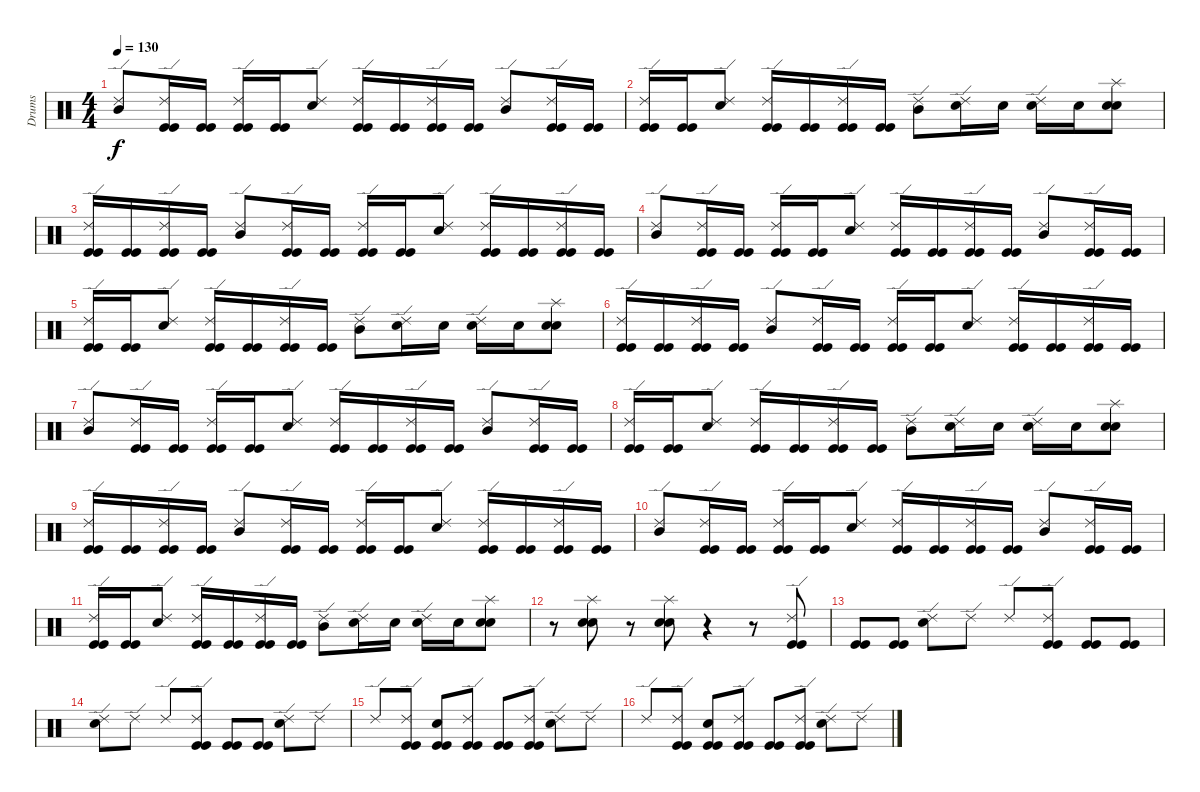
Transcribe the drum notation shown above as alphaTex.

\track ("Drums" "Drums") {instrument percussion}
\staff {score}
\articulation defaults
\ts (4 4)
\tempo 130
\clef neutral
\ks c
("Ride (edge) 2" "Mid Tom (hit)").8{dy f} ("Ride (edge) 2" "Kick (hit)" "Kick (hit)").16 ("Kick (hit)" "Kick (hit)").16 ("Ride (edge) 2" "Kick (hit)" "Kick (hit)").16 ("Kick (hit)" "Kick (hit)").16 ("Ride (edge) 2" "Snare (hit) 2").8 ("Ride (edge) 2" "Kick (hit)" "Kick (hit)").16 ("Kick (hit)" "Kick (hit)").16 ("Ride (edge) 2" "Kick (hit)" "Kick (hit)").16 ("Kick (hit)" "Kick (hit)").16 ("Ride (edge) 2" "Mid Tom (hit)").8 ("Ride (edge) 2" "Kick (hit)" "Kick (hit)").16 ("Kick (hit)" "Kick (hit)").16 |
("Ride (edge) 2" "Kick (hit)" "Kick (hit)").16 ("Kick (hit)" "Kick (hit)").16 ("Ride (edge) 2" "Snare (hit) 2").8 ("Ride (edge) 2" "Kick (hit)" "Kick (hit)").16 ("Kick (hit)" "Kick (hit)").16 ("Ride (edge) 2" "Kick (hit)" "Kick (hit)").16 ("Kick (hit)" "Kick (hit)").16 ("Ride (edge) 2" "Mid Tom (hit)").8 ("Ride (edge) 2" "Snare (hit) 2").16 "Snare (hit) 2".16 ("Ride (edge) 2" "Snare (hit) 2").16 "Snare (hit) 2".16 ("Splash (hit)" "Snare (hit) 2" "Snare (hit) 2").8 |
("Ride (edge) 2" "Kick (hit)" "Kick (hit)").16 ("Kick (hit)" "Kick (hit)").16 ("Ride (edge) 2" "Kick (hit)" "Kick (hit)").16 ("Kick (hit)" "Kick (hit)").16 ("Ride (edge) 2" "Mid Tom (hit)").8 ("Ride (edge) 2" "Kick (hit)" "Kick (hit)").16 ("Kick (hit)" "Kick (hit)").16 ("Ride (edge) 2" "Kick (hit)" "Kick (hit)").16 ("Kick (hit)" "Kick (hit)").16 ("Ride (edge) 2" "Snare (hit) 2").8 ("Ride (edge) 2" "Kick (hit)" "Kick (hit)").16 ("Kick (hit)" "Kick (hit)").16 ("Ride (edge) 2" "Kick (hit)" "Kick (hit)").16 ("Kick (hit)" "Kick (hit)").16 |
("Ride (edge) 2" "Mid Tom (hit)").8 ("Ride (edge) 2" "Kick (hit)" "Kick (hit)").16 ("Kick (hit)" "Kick (hit)").16 ("Ride (edge) 2" "Kick (hit)" "Kick (hit)").16 ("Kick (hit)" "Kick (hit)").16 ("Ride (edge) 2" "Snare (hit) 2").8 ("Ride (edge) 2" "Kick (hit)" "Kick (hit)").16 ("Kick (hit)" "Kick (hit)").16 ("Ride (edge) 2" "Kick (hit)" "Kick (hit)").16 ("Kick (hit)" "Kick (hit)").16 ("Ride (edge) 2" "Mid Tom (hit)").8 ("Ride (edge) 2" "Kick (hit)" "Kick (hit)").16 ("Kick (hit)" "Kick (hit)").16 |
("Ride (edge) 2" "Kick (hit)" "Kick (hit)").16 ("Kick (hit)" "Kick (hit)").16 ("Ride (edge) 2" "Snare (hit) 2").8 ("Ride (edge) 2" "Kick (hit)" "Kick (hit)").16 ("Kick (hit)" "Kick (hit)").16 ("Ride (edge) 2" "Kick (hit)" "Kick (hit)").16 ("Kick (hit)" "Kick (hit)").16 ("Ride (edge) 2" "Mid Tom (hit)").8 ("Ride (edge) 2" "Snare (hit) 2").16 "Snare (hit) 2".16 ("Ride (edge) 2" "Snare (hit) 2").16 "Snare (hit) 2".16 ("Splash (hit)" "Snare (hit) 2" "Snare (hit) 2").8 |
("Ride (edge) 2" "Kick (hit)" "Kick (hit)").16 ("Kick (hit)" "Kick (hit)").16 ("Ride (edge) 2" "Kick (hit)" "Kick (hit)").16 ("Kick (hit)" "Kick (hit)").16 ("Ride (edge) 2" "Mid Tom (hit)").8 ("Ride (edge) 2" "Kick (hit)" "Kick (hit)").16 ("Kick (hit)" "Kick (hit)").16 ("Ride (edge) 2" "Kick (hit)" "Kick (hit)").16 ("Kick (hit)" "Kick (hit)").16 ("Ride (edge) 2" "Snare (hit) 2").8 ("Ride (edge) 2" "Kick (hit)" "Kick (hit)").16 ("Kick (hit)" "Kick (hit)").16 ("Ride (edge) 2" "Kick (hit)" "Kick (hit)").16 ("Kick (hit)" "Kick (hit)").16 |
("Ride (edge) 2" "Mid Tom (hit)").8 ("Ride (edge) 2" "Kick (hit)" "Kick (hit)").16 ("Kick (hit)" "Kick (hit)").16 ("Ride (edge) 2" "Kick (hit)" "Kick (hit)").16 ("Kick (hit)" "Kick (hit)").16 ("Ride (edge) 2" "Snare (hit) 2").8 ("Ride (edge) 2" "Kick (hit)" "Kick (hit)").16 ("Kick (hit)" "Kick (hit)").16 ("Ride (edge) 2" "Kick (hit)" "Kick (hit)").16 ("Kick (hit)" "Kick (hit)").16 ("Ride (edge) 2" "Mid Tom (hit)").8 ("Ride (edge) 2" "Kick (hit)" "Kick (hit)").16 ("Kick (hit)" "Kick (hit)").16 |
("Ride (edge) 2" "Kick (hit)" "Kick (hit)").16 ("Kick (hit)" "Kick (hit)").16 ("Ride (edge) 2" "Snare (hit) 2").8 ("Ride (edge) 2" "Kick (hit)" "Kick (hit)").16 ("Kick (hit)" "Kick (hit)").16 ("Ride (edge) 2" "Kick (hit)" "Kick (hit)").16 ("Kick (hit)" "Kick (hit)").16 ("Ride (edge) 2" "Mid Tom (hit)").8 ("Ride (edge) 2" "Snare (hit) 2").16 "Snare (hit) 2".16 ("Ride (edge) 2" "Snare (hit) 2").16 "Snare (hit) 2".16 ("Splash (hit)" "Snare (hit) 2" "Snare (hit) 2").8 |
("Ride (edge) 2" "Kick (hit)" "Kick (hit)").16 ("Kick (hit)" "Kick (hit)").16 ("Ride (edge) 2" "Kick (hit)" "Kick (hit)").16 ("Kick (hit)" "Kick (hit)").16 ("Ride (edge) 2" "Mid Tom (hit)").8 ("Ride (edge) 2" "Kick (hit)" "Kick (hit)").16 ("Kick (hit)" "Kick (hit)").16 ("Ride (edge) 2" "Kick (hit)" "Kick (hit)").16 ("Kick (hit)" "Kick (hit)").16 ("Ride (edge) 2" "Snare (hit) 2").8 ("Ride (edge) 2" "Kick (hit)" "Kick (hit)").16 ("Kick (hit)" "Kick (hit)").16 ("Ride (edge) 2" "Kick (hit)" "Kick (hit)").16 ("Kick (hit)" "Kick (hit)").16 |
("Ride (edge) 2" "Mid Tom (hit)").8 ("Ride (edge) 2" "Kick (hit)" "Kick (hit)").16 ("Kick (hit)" "Kick (hit)").16 ("Ride (edge) 2" "Kick (hit)" "Kick (hit)").16 ("Kick (hit)" "Kick (hit)").16 ("Ride (edge) 2" "Snare (hit) 2").8 ("Ride (edge) 2" "Kick (hit)" "Kick (hit)").16 ("Kick (hit)" "Kick (hit)").16 ("Ride (edge) 2" "Kick (hit)" "Kick (hit)").16 ("Kick (hit)" "Kick (hit)").16 ("Ride (edge) 2" "Mid Tom (hit)").8 ("Ride (edge) 2" "Kick (hit)" "Kick (hit)").16 ("Kick (hit)" "Kick (hit)").16 |
("Ride (edge) 2" "Kick (hit)" "Kick (hit)").16 ("Kick (hit)" "Kick (hit)").16 ("Ride (edge) 2" "Snare (hit) 2").8 ("Ride (edge) 2" "Kick (hit)" "Kick (hit)").16 ("Kick (hit)" "Kick (hit)").16 ("Ride (edge) 2" "Kick (hit)" "Kick (hit)").16 ("Kick (hit)" "Kick (hit)").16 ("Ride (edge) 2" "Mid Tom (hit)").8 ("Ride (edge) 2" "Snare (hit) 2").16 "Snare (hit) 2".16 ("Ride (edge) 2" "Snare (hit) 2").16 "Snare (hit) 2".16 ("Splash (hit)" "Snare (hit) 2" "Snare (hit) 2").8 |
r.8 ("Splash (hit)" "Snare (hit) 2" "Snare (hit) 2").8 r.8 ("Splash (hit)" "Snare (hit) 2" "Snare (hit) 2").8 r.4 r.8 ("Ride (edge) 2" "Kick (hit)" "Kick (hit)").8 |
("Kick (hit)" "Kick (hit)").8 ("Kick (hit)" "Kick (hit)").8 ("Ride (edge) 2" "Snare (hit) 2").8 "Ride (edge) 2".8 "Ride (edge) 2".8 ("Ride (edge) 2" "Kick (hit)" "Kick (hit)").8 ("Kick (hit)" "Kick (hit)").8 ("Kick (hit)" "Kick (hit)").8 |
("Ride (edge) 2" "Snare (hit) 2").8 "Ride (edge) 2".8 "Ride (edge) 2".8 ("Ride (edge) 2" "Kick (hit)" "Kick (hit)").8 ("Kick (hit)" "Kick (hit)").8 ("Kick (hit)" "Kick (hit)").8 ("Ride (edge) 2" "Snare (hit) 2").8 "Ride (edge) 2".8 |
"Ride (edge) 2".8 ("Ride (edge) 2" "Kick (hit)" "Kick (hit)").8 ("Snare (hit) 2" "Kick (hit)" "Kick (hit)").8 ("Ride (edge) 2" "Kick (hit)" "Kick (hit)").8 ("Kick (hit)" "Kick (hit)").8 ("Ride (edge) 2" "Kick (hit)" "Kick (hit)").8 ("Ride (edge) 2" "Snare (hit) 2").8 "Ride (edge) 2".8 |
"Ride (edge) 2".8 ("Ride (edge) 2" "Kick (hit)" "Kick (hit)").8 ("Snare (hit) 2" "Kick (hit)" "Kick (hit)").8 ("Ride (edge) 2" "Kick (hit)" "Kick (hit)").8 ("Kick (hit)" "Kick (hit)").8 ("Ride (edge) 2" "Kick (hit)" "Kick (hit)").8 ("Ride (edge) 2" "Snare (hit) 2").8 "Ride (edge) 2".8
